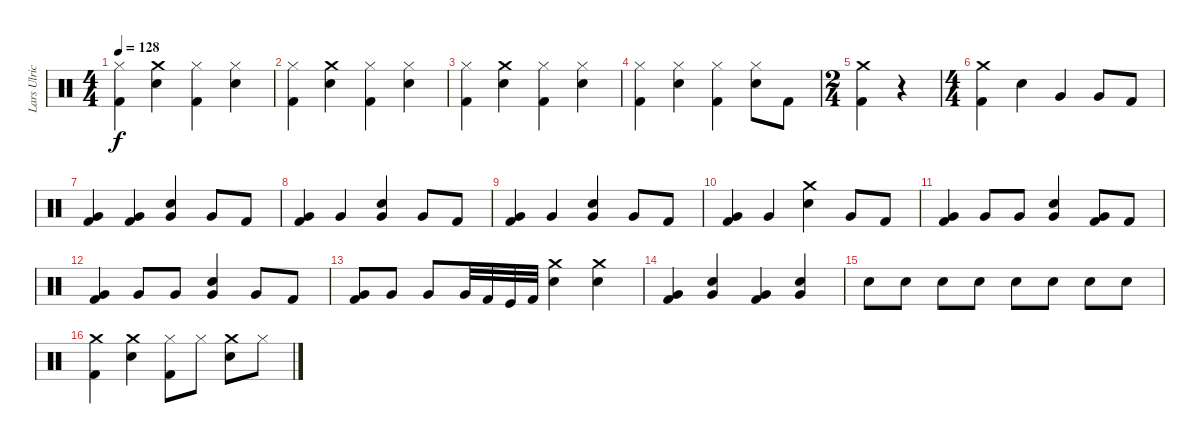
\track ("Lars Ulrich (Drums)" "Lars Ulric") {instrument percussion}
\staff {score}
\articulation defaults
\ts (4 4)
\tempo 128
\clef neutral
\ks c
("Kick (hit) 2" "Hi-Hat (closed)").4{dy f} ("Crash medium (hit)" "Snare (hit) 2").4 ("Hi-Hat (closed)" "Kick (hit) 2").4 ("Snare (hit) 2" "Hi-Hat (closed)").4 |
("Kick (hit) 2" "Hi-Hat (closed)").4 ("Crash medium (hit)" "Snare (hit) 2").4 ("Hi-Hat (closed)" "Kick (hit) 2").4 ("Snare (hit) 2" "Hi-Hat (closed)").4 |
("Kick (hit) 2" "Hi-Hat (closed)").4 ("Crash medium (hit)" "Snare (hit) 2").4 ("Hi-Hat (closed)" "Kick (hit) 2").4 ("Snare (hit) 2" "Hi-Hat (closed)").4 |
("Kick (hit) 2" "Hi-Hat (closed)").4 ("Hi-Hat (closed)" "Snare (hit) 2").4 ("Hi-Hat (closed)" "Kick (hit) 2").4 ("Hi-Hat (closed)" "Snare (hit) 2").8 "Kick (hit) 2".8 |
\ts (2 4)
("Crash medium (hit)" "Kick (hit) 2").4 r.4 |
\ts (4 4)
("Crash medium (hit)" "Kick (hit) 2").4 "Snare (hit) 2".4 "Very Low Tom (hit)".4 "Very Low Tom (hit)".8 "Kick (hit) 2".8 |
("Kick (hit) 2" "Very Low Tom (hit)").4 ("Kick (hit) 2" "Very Low Tom (hit)").4 ("Snare (hit) 2" "Very Low Tom (hit)").4 "Very Low Tom (hit)".8 "Kick (hit) 2".8 |
("Kick (hit) 2" "Very Low Tom (hit)").4 "Very Low Tom (hit)".4 ("Snare (hit) 2" "Very Low Tom (hit)").4 "Very Low Tom (hit)".8 "Kick (hit) 2".8 |
("Kick (hit) 2" "Very Low Tom (hit)").4 "Very Low Tom (hit)".4 ("Snare (hit) 2" "Very Low Tom (hit)").4 "Very Low Tom (hit)".8 "Kick (hit) 2".8 |
("Kick (hit) 2" "Very Low Tom (hit)").4 "Very Low Tom (hit)".4 ("Crash medium (hit)" "Snare (hit) 2").4 "Very Low Tom (hit)".8 "Kick (hit) 2".8 |
("Kick (hit) 2" "Very Low Tom (hit)").4 "Very Low Tom (hit)".8 "Very Low Tom (hit)".8 ("Snare (hit) 2" "Very Low Tom (hit)").4 ("Very Low Tom (hit)" "Kick (hit) 2").8 "Kick (hit) 2".8 |
("Kick (hit) 2" "Very Low Tom (hit)").4 "Very Low Tom (hit)".8 "Very Low Tom (hit)".8 ("Snare (hit) 2" "Very Low Tom (hit)").4 "Very Low Tom (hit)".8 "Kick (hit) 2".8 |
("Kick (hit) 2" "Very Low Tom (hit)").8 "Very Low Tom (hit)".8 "Very Low Tom (hit)".8 "Very Low Tom (hit)".32 "Kick (hit) 2".32 "Kick (hit)".32 "Kick (hit) 2".32 ("Crash medium (hit)" "Snare (hit) 2").4 ("Crash medium (hit)" "Snare (hit) 2").4 |
("Very Low Tom (hit)" "Kick (hit) 2").4 ("Snare (hit) 2" "Very Low Tom (hit)").4 ("Very Low Tom (hit)" "Kick (hit) 2").4 ("Snare (hit) 2" "Very Low Tom (hit)").4 |
"Snare (hit) 2".8 "Snare (hit) 2".8 "Snare (hit) 2".8 "Snare (hit) 2".8 "Snare (hit) 2".8 "Snare (hit) 2".8 "Snare (hit) 2".8 "Snare (hit) 2".8 |
("Crash medium (hit)" "Kick (hit) 2").4 ("Crash medium (hit)" "Snare (hit) 2").4 ("Kick (hit) 2" "Hi-Hat (closed)").8 "Hi-Hat (closed)".8 ("Crash medium (hit)" "Snare (hit) 2").8 "Hi-Hat (closed)".8
